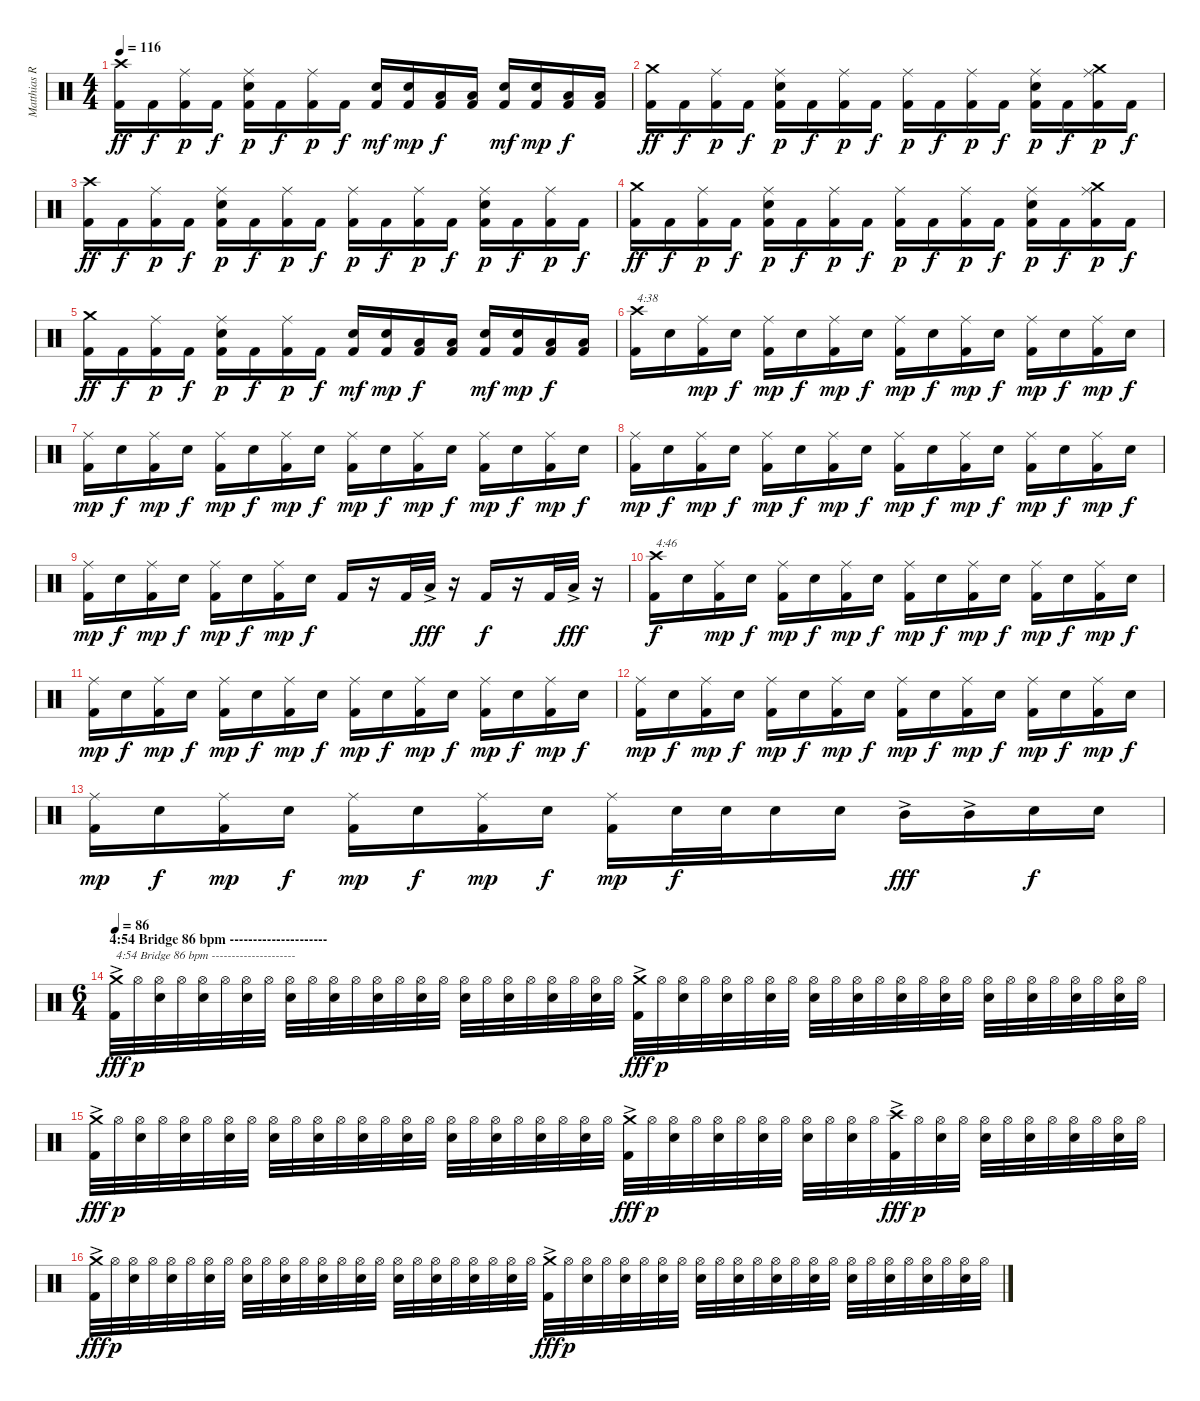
\track ("Matthias R." "Matthias R") {instrument percussion}
\staff {score}
\articulation defaults
\ts (4 4)
\tempo 116
\clef neutral
\ks c
("Kick (hit) 2" "Crash high (hit)").16{dy ff} "Kick (hit) 2".16{dy f} ("Kick (hit) 2" "Ride (middle)").16{dy p} "Kick (hit) 2".16{dy f} ("Kick (hit) 2" "Electric Snare (hit)" "Ride (middle)").16{dy p} "Kick (hit) 2".16{dy f} ("Kick (hit) 2" "Ride (middle)").16{dy p} "Kick (hit) 2".16{dy f} ("Kick (hit) 2" "Electric Snare (hit)").16{dy mf} ("Kick (hit) 2" "Electric Snare (hit)").16{dy mp} ("Kick (hit) 2" "Low Tom (hit)").16{dy f} ("Kick (hit) 2" "Low Tom (hit)").16 ("Kick (hit) 2" "Electric Snare (hit)").16{dy mf} ("Kick (hit) 2" "Electric Snare (hit)").16{dy mp} ("Kick (hit) 2" "Low Tom (hit)").16{dy f} ("Kick (hit) 2" "Low Tom (hit)").16 |
("Kick (hit) 2" "Crash medium (hit)").16{dy ff} "Kick (hit) 2".16{dy f} ("Kick (hit) 2" "Ride (middle)").16{dy p} "Kick (hit) 2".16{dy f} ("Kick (hit) 2" "Electric Snare (hit)" "Ride (middle)").16{dy p} "Kick (hit) 2".16{dy f} ("Kick (hit) 2" "Ride (middle)").16{dy p} "Kick (hit) 2".16{dy f} ("Kick (hit) 2" "Ride (middle)").16{dy p} "Kick (hit) 2".16{dy f} ("Kick (hit) 2" "Ride (middle)").16{dy p} "Kick (hit) 2".16{dy f} ("Kick (hit) 2" "Electric Snare (hit)" "Ride (middle)").16{dy p} "Kick (hit) 2".16{dy f} ("Kick (hit) 2" "Ride (middle)" "Crash medium (hit)").16{dy p} "Kick (hit) 2".16{dy f} |
("Kick (hit) 2" "Crash high (hit)").16{dy ff} "Kick (hit) 2".16{dy f} ("Kick (hit) 2" "Ride (middle)").16{dy p} "Kick (hit) 2".16{dy f} ("Kick (hit) 2" "Electric Snare (hit)" "Ride (middle)").16{dy p} "Kick (hit) 2".16{dy f} ("Kick (hit) 2" "Ride (middle)").16{dy p} "Kick (hit) 2".16{dy f} ("Kick (hit) 2" "Ride (middle)").16{dy p} "Kick (hit) 2".16{dy f} ("Kick (hit) 2" "Ride (middle)").16{dy p} "Kick (hit) 2".16{dy f} ("Kick (hit) 2" "Electric Snare (hit)" "Ride (middle)").16{dy p} "Kick (hit) 2".16{dy f} ("Kick (hit) 2" "Ride (middle)").16{dy p} "Kick (hit) 2".16{dy f} |
("Kick (hit) 2" "Crash medium (hit)").16{dy ff} "Kick (hit) 2".16{dy f} ("Kick (hit) 2" "Ride (middle)").16{dy p} "Kick (hit) 2".16{dy f} ("Kick (hit) 2" "Electric Snare (hit)" "Ride (middle)").16{dy p} "Kick (hit) 2".16{dy f} ("Kick (hit) 2" "Ride (middle)").16{dy p} "Kick (hit) 2".16{dy f} ("Kick (hit) 2" "Ride (middle)").16{dy p} "Kick (hit) 2".16{dy f} ("Kick (hit) 2" "Ride (middle)").16{dy p} "Kick (hit) 2".16{dy f} ("Kick (hit) 2" "Electric Snare (hit)" "Ride (middle)").16{dy p} "Kick (hit) 2".16{dy f} ("Kick (hit) 2" "Ride (middle)" "Crash medium (hit)").16{dy p} "Kick (hit) 2".16{dy f} |
("Kick (hit) 2" "Crash medium (hit)").16{dy ff} "Kick (hit) 2".16{dy f} ("Kick (hit) 2" "Ride (middle)").16{dy p} "Kick (hit) 2".16{dy f} ("Kick (hit) 2" "Electric Snare (hit)" "Ride (middle)").16{dy p} "Kick (hit) 2".16{dy f} ("Kick (hit) 2" "Ride (middle)").16{dy p} "Kick (hit) 2".16{dy f} ("Kick (hit) 2" "Electric Snare (hit)").16{dy mf} ("Kick (hit) 2" "Electric Snare (hit)").16{dy mp} ("Kick (hit) 2" "Low Tom (hit)").16{dy f} ("Kick (hit) 2" "Low Tom (hit)").16 ("Kick (hit) 2" "Electric Snare (hit)").16{dy mf} ("Kick (hit) 2" "Electric Snare (hit)").16{dy mp} ("Kick (hit) 2" "Low Tom (hit)").16{dy f} ("Kick (hit) 2" "Low Tom (hit)").16 |
("Kick (hit) 2" "Crash high (hit)").16{txt "4:38"} "Electric Snare (hit)".16 ("Kick (hit) 2" "Ride (middle)").16{dy mp} "Electric Snare (hit)".16{dy f} ("Kick (hit) 2" "Ride (middle)").16{dy mp} "Electric Snare (hit)".16{dy f} ("Kick (hit) 2" "Ride (middle)").16{dy mp} "Electric Snare (hit)".16{dy f} ("Kick (hit) 2" "Ride (middle)").16{dy mp} "Electric Snare (hit)".16{dy f} ("Kick (hit) 2" "Ride (middle)").16{dy mp} "Electric Snare (hit)".16{dy f} ("Kick (hit) 2" "Ride (middle)").16{dy mp} "Electric Snare (hit)".16{dy f} ("Kick (hit) 2" "Ride (middle)").16{dy mp} "Electric Snare (hit)".16{dy f} |
("Kick (hit) 2" "Ride (middle)").16{dy mp} "Electric Snare (hit)".16{dy f} ("Kick (hit) 2" "Ride (middle)").16{dy mp} "Electric Snare (hit)".16{dy f} ("Kick (hit) 2" "Ride (middle)").16{dy mp} "Electric Snare (hit)".16{dy f} ("Kick (hit) 2" "Ride (middle)").16{dy mp} "Electric Snare (hit)".16{dy f} ("Kick (hit) 2" "Ride (middle)").16{dy mp} "Electric Snare (hit)".16{dy f} ("Kick (hit) 2" "Ride (middle)").16{dy mp} "Electric Snare (hit)".16{dy f} ("Kick (hit) 2" "Ride (middle)").16{dy mp} "Electric Snare (hit)".16{dy f} ("Kick (hit) 2" "Ride (middle)").16{dy mp} "Electric Snare (hit)".16{dy f} |
("Kick (hit) 2" "Ride (middle)").16{dy mp} "Electric Snare (hit)".16{dy f} ("Kick (hit) 2" "Ride (middle)").16{dy mp} "Electric Snare (hit)".16{dy f} ("Kick (hit) 2" "Ride (middle)").16{dy mp} "Electric Snare (hit)".16{dy f} ("Kick (hit) 2" "Ride (middle)").16{dy mp} "Electric Snare (hit)".16{dy f} ("Kick (hit) 2" "Ride (middle)").16{dy mp} "Electric Snare (hit)".16{dy f} ("Kick (hit) 2" "Ride (middle)").16{dy mp} "Electric Snare (hit)".16{dy f} ("Kick (hit) 2" "Ride (middle)").16{dy mp} "Electric Snare (hit)".16{dy f} ("Kick (hit) 2" "Ride (middle)").16{dy mp} "Electric Snare (hit)".16{dy f} |
("Kick (hit) 2" "Ride (middle)").16{dy mp} "Electric Snare (hit)".16{dy f} ("Kick (hit) 2" "Ride (middle)").16{dy mp} "Electric Snare (hit)".16{dy f} ("Kick (hit) 2" "Ride (middle)").16{dy mp} "Electric Snare (hit)".16{dy f} ("Kick (hit) 2" "Ride (middle)").16{dy mp} "Electric Snare (hit)".16{dy f} "Kick (hit) 2".16 r.16 "Kick (hit) 2".32 "Low Tom (hit)"{ac}.32{dy fff} r.16 "Kick (hit) 2".16{dy f} r.16 "Kick (hit) 2".32 "Low Tom (hit)"{ac}.32{dy fff} r.16 |
("Kick (hit) 2" "Crash high (hit)").16{txt "4:46" dy f} "Electric Snare (hit)".16 ("Kick (hit) 2" "Ride (middle)").16{dy mp} "Electric Snare (hit)".16{dy f} ("Kick (hit) 2" "Ride (middle)").16{dy mp} "Electric Snare (hit)".16{dy f} ("Kick (hit) 2" "Ride (middle)").16{dy mp} "Electric Snare (hit)".16{dy f} ("Kick (hit) 2" "Ride (middle)").16{dy mp} "Electric Snare (hit)".16{dy f} ("Kick (hit) 2" "Ride (middle)").16{dy mp} "Electric Snare (hit)".16{dy f} ("Kick (hit) 2" "Ride (middle)").16{dy mp} "Electric Snare (hit)".16{dy f} ("Kick (hit) 2" "Ride (middle)").16{dy mp} "Electric Snare (hit)".16{dy f} |
("Kick (hit) 2" "Ride (middle)").16{dy mp} "Electric Snare (hit)".16{dy f} ("Kick (hit) 2" "Ride (middle)").16{dy mp} "Electric Snare (hit)".16{dy f} ("Kick (hit) 2" "Ride (middle)").16{dy mp} "Electric Snare (hit)".16{dy f} ("Kick (hit) 2" "Ride (middle)").16{dy mp} "Electric Snare (hit)".16{dy f} ("Kick (hit) 2" "Ride (middle)").16{dy mp} "Electric Snare (hit)".16{dy f} ("Kick (hit) 2" "Ride (middle)").16{dy mp} "Electric Snare (hit)".16{dy f} ("Kick (hit) 2" "Ride (middle)").16{dy mp} "Electric Snare (hit)".16{dy f} ("Kick (hit) 2" "Ride (middle)").16{dy mp} "Electric Snare (hit)".16{dy f} |
("Kick (hit) 2" "Ride (middle)").16{dy mp} "Electric Snare (hit)".16{dy f} ("Kick (hit) 2" "Ride (middle)").16{dy mp} "Electric Snare (hit)".16{dy f} ("Kick (hit) 2" "Ride (middle)").16{dy mp} "Electric Snare (hit)".16{dy f} ("Kick (hit) 2" "Ride (middle)").16{dy mp} "Electric Snare (hit)".16{dy f} ("Kick (hit) 2" "Ride (middle)").16{dy mp} "Electric Snare (hit)".16{dy f} ("Kick (hit) 2" "Ride (middle)").16{dy mp} "Electric Snare (hit)".16{dy f} ("Kick (hit) 2" "Ride (middle)").16{dy mp} "Electric Snare (hit)".16{dy f} ("Kick (hit) 2" "Ride (middle)").16{dy mp} "Electric Snare (hit)".16{dy f} |
("Kick (hit) 2" "Ride (middle)").16{dy mp} "Electric Snare (hit)".16{dy f} ("Kick (hit) 2" "Ride (middle)").16{dy mp} "Electric Snare (hit)".16{dy f} ("Kick (hit) 2" "Ride (middle)").16{dy mp} "Electric Snare (hit)".16{dy f} ("Kick (hit) 2" "Ride (middle)").16{dy mp} "Electric Snare (hit)".16{dy f} ("Kick (hit) 2" "Ride (middle)").16{dy mp} "Electric Snare (hit)".32{dy f} "Electric Snare (hit)".32 "Electric Snare (hit)".16 "Electric Snare (hit)".16 "Mid Tom (hit)"{ac}.16{dy fff} "Mid Tom (hit)"{ac}.16 "Electric Snare (hit)".16{dy f} "Electric Snare (hit)".16 |
\ts (6 4)
\section ("" "4:54 Bridge 86 bpm ---------------------")
\tempo 86
("Kick (hit) 2"{ac} "Crash medium (hit)").32{txt "4:54 Bridge 86 bpm ---------------------" dy fff} "Hi-Hat (open)".32{dy p} ("Electric Snare (hit)" "Hi-Hat (open)").32 "Hi-Hat (open)".32 ("Electric Snare (hit)" "Hi-Hat (open)").32 "Hi-Hat (open)".32 ("Electric Snare (hit)" "Hi-Hat (open)").32 "Hi-Hat (open)".32 ("Electric Snare (hit)" "Hi-Hat (open)").32 "Hi-Hat (open)".32 ("Electric Snare (hit)" "Hi-Hat (open)").32 "Hi-Hat (open)".32 ("Electric Snare (hit)" "Hi-Hat (open)").32 "Hi-Hat (open)".32 ("Electric Snare (hit)" "Hi-Hat (open)").32 "Hi-Hat (open)".32 ("Electric Snare (hit)" "Hi-Hat (open)").32 "Hi-Hat (open)".32 ("Electric Snare (hit)" "Hi-Hat (open)").32 "Hi-Hat (open)".32 ("Electric Snare (hit)" "Hi-Hat (open)").32 "Hi-Hat (open)".32 ("Electric Snare (hit)" "Hi-Hat (open)").32 "Hi-Hat (open)".32 ("Kick (hit) 2"{ac} "Crash medium (hit)").32{dy fff} "Hi-Hat (open)".32{dy p} ("Electric Snare (hit)" "Hi-Hat (open)").32 "Hi-Hat (open)".32 ("Electric Snare (hit)" "Hi-Hat (open)").32 "Hi-Hat (open)".32 ("Electric Snare (hit)" "Hi-Hat (open)").32 "Hi-Hat (open)".32 ("Electric Snare (hit)" "Hi-Hat (open)").32 "Hi-Hat (open)".32 ("Electric Snare (hit)" "Hi-Hat (open)").32 "Hi-Hat (open)".32 ("Electric Snare (hit)" "Hi-Hat (open)").32 "Hi-Hat (open)".32 ("Electric Snare (hit)" "Hi-Hat (open)").32 "Hi-Hat (open)".32 ("Electric Snare (hit)" "Hi-Hat (open)").32 "Hi-Hat (open)".32 ("Electric Snare (hit)" "Hi-Hat (open)").32 "Hi-Hat (open)".32 ("Electric Snare (hit)" "Hi-Hat (open)").32 "Hi-Hat (open)".32 ("Electric Snare (hit)" "Hi-Hat (open)").32 "Hi-Hat (open)".32 |
("Kick (hit) 2"{ac} "Crash medium (hit)").32{dy fff} "Hi-Hat (open)".32{dy p} ("Electric Snare (hit)" "Hi-Hat (open)").32 "Hi-Hat (open)".32 ("Electric Snare (hit)" "Hi-Hat (open)").32 "Hi-Hat (open)".32 ("Electric Snare (hit)" "Hi-Hat (open)").32 "Hi-Hat (open)".32 ("Electric Snare (hit)" "Hi-Hat (open)").32 "Hi-Hat (open)".32 ("Electric Snare (hit)" "Hi-Hat (open)").32 "Hi-Hat (open)".32 ("Electric Snare (hit)" "Hi-Hat (open)").32 "Hi-Hat (open)".32 ("Electric Snare (hit)" "Hi-Hat (open)").32 "Hi-Hat (open)".32 ("Electric Snare (hit)" "Hi-Hat (open)").32 "Hi-Hat (open)".32 ("Electric Snare (hit)" "Hi-Hat (open)").32 "Hi-Hat (open)".32 ("Electric Snare (hit)" "Hi-Hat (open)").32 "Hi-Hat (open)".32 ("Electric Snare (hit)" "Hi-Hat (open)").32 "Hi-Hat (open)".32 ("Kick (hit) 2"{ac} "Crash medium (hit)").32{dy fff} "Hi-Hat (open)".32{dy p} ("Electric Snare (hit)" "Hi-Hat (open)").32 "Hi-Hat (open)".32 ("Electric Snare (hit)" "Hi-Hat (open)").32 "Hi-Hat (open)".32 ("Electric Snare (hit)" "Hi-Hat (open)").32 "Hi-Hat (open)".32 ("Electric Snare (hit)" "Hi-Hat (open)").32 "Hi-Hat (open)".32 ("Electric Snare (hit)" "Hi-Hat (open)").32 "Hi-Hat (open)".32 ("Kick (hit) 2"{ac} "Crash high (hit)"{ac}).32{dy fff} "Hi-Hat (open)".32{dy p} ("Electric Snare (hit)" "Hi-Hat (open)").32 "Hi-Hat (open)".32 ("Electric Snare (hit)" "Hi-Hat (open)").32 "Hi-Hat (open)".32 ("Electric Snare (hit)" "Hi-Hat (open)").32 "Hi-Hat (open)".32 ("Electric Snare (hit)" "Hi-Hat (open)").32 "Hi-Hat (open)".32 ("Electric Snare (hit)" "Hi-Hat (open)").32 "Hi-Hat (open)".32 |
("Kick (hit) 2"{ac} "Crash medium (hit)").32{dy fff} "Hi-Hat (open)".32{dy p} ("Electric Snare (hit)" "Hi-Hat (open)").32 "Hi-Hat (open)".32 ("Electric Snare (hit)" "Hi-Hat (open)").32 "Hi-Hat (open)".32 ("Electric Snare (hit)" "Hi-Hat (open)").32 "Hi-Hat (open)".32 ("Electric Snare (hit)" "Hi-Hat (open)").32 "Hi-Hat (open)".32 ("Electric Snare (hit)" "Hi-Hat (open)").32 "Hi-Hat (open)".32 ("Electric Snare (hit)" "Hi-Hat (open)").32 "Hi-Hat (open)".32 ("Electric Snare (hit)" "Hi-Hat (open)").32 "Hi-Hat (open)".32 ("Electric Snare (hit)" "Hi-Hat (open)").32 "Hi-Hat (open)".32 ("Electric Snare (hit)" "Hi-Hat (open)").32 "Hi-Hat (open)".32 ("Electric Snare (hit)" "Hi-Hat (open)").32 "Hi-Hat (open)".32 ("Electric Snare (hit)" "Hi-Hat (open)").32 "Hi-Hat (open)".32 ("Kick (hit) 2"{ac} "Crash medium (hit)").32{dy fff} "Hi-Hat (open)".32{dy p} ("Electric Snare (hit)" "Hi-Hat (open)").32 "Hi-Hat (open)".32 ("Electric Snare (hit)" "Hi-Hat (open)").32 "Hi-Hat (open)".32 ("Electric Snare (hit)" "Hi-Hat (open)").32 "Hi-Hat (open)".32 ("Electric Snare (hit)" "Hi-Hat (open)").32 "Hi-Hat (open)".32 ("Electric Snare (hit)" "Hi-Hat (open)").32 "Hi-Hat (open)".32 ("Electric Snare (hit)" "Hi-Hat (open)").32 "Hi-Hat (open)".32 ("Electric Snare (hit)" "Hi-Hat (open)").32 "Hi-Hat (open)".32 ("Electric Snare (hit)" "Hi-Hat (open)").32 "Hi-Hat (open)".32 ("Electric Snare (hit)" "Hi-Hat (open)").32 "Hi-Hat (open)".32 ("Electric Snare (hit)" "Hi-Hat (open)").32 "Hi-Hat (open)".32 ("Electric Snare (hit)" "Hi-Hat (open)").32 "Hi-Hat (open)".32
